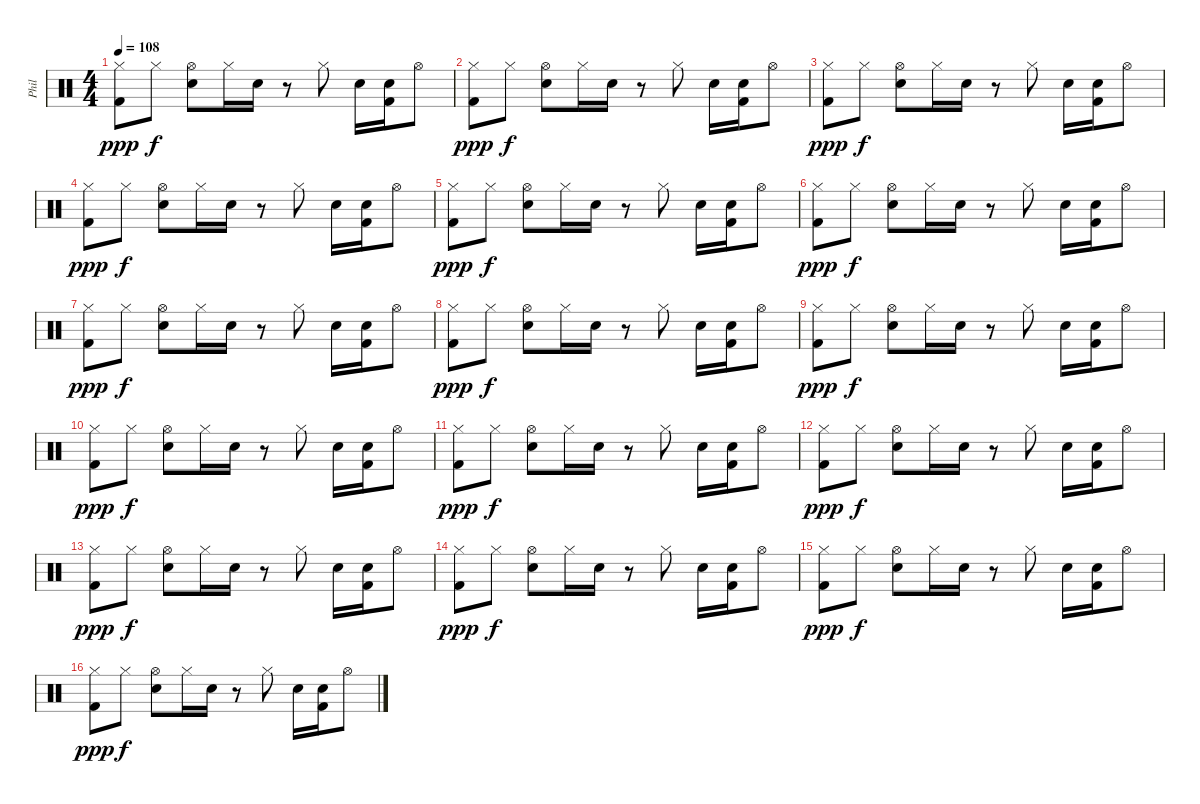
\track ("Phil" "Phil") {instrument percussion}
\staff {score}
\articulation defaults
\ts (4 4)
\tempo 108
\clef neutral
\ks c
("Hi-Hat (closed)" "Kick (hit) 2").8{dy ppp} "Hi-Hat (closed)".8{dy f} ("Hi-Hat (open)" "Electric Snare (hit)").8 "Hi-Hat (closed)".16 "Electric Snare (hit)".16 r.8 "Hi-Hat (closed)".8 "Electric Snare (hit)".16 ("Electric Snare (hit)" "Kick (hit) 2").16 "Hi-Hat (open)".8 |
("Hi-Hat (closed)" "Kick (hit) 2").8{dy ppp} "Hi-Hat (closed)".8{dy f} ("Hi-Hat (open)" "Electric Snare (hit)").8 "Hi-Hat (closed)".16 "Electric Snare (hit)".16 r.8 "Hi-Hat (closed)".8 "Electric Snare (hit)".16 ("Electric Snare (hit)" "Kick (hit) 2").16 "Hi-Hat (open)".8 |
("Hi-Hat (closed)" "Kick (hit) 2").8{dy ppp} "Hi-Hat (closed)".8{dy f} ("Hi-Hat (open)" "Electric Snare (hit)").8 "Hi-Hat (closed)".16 "Electric Snare (hit)".16 r.8 "Hi-Hat (closed)".8 "Electric Snare (hit)".16 ("Electric Snare (hit)" "Kick (hit) 2").16 "Hi-Hat (open)".8 |
("Hi-Hat (closed)" "Kick (hit) 2").8{dy ppp} "Hi-Hat (closed)".8{dy f} ("Hi-Hat (open)" "Electric Snare (hit)").8 "Hi-Hat (closed)".16 "Electric Snare (hit)".16 r.8 "Hi-Hat (closed)".8 "Electric Snare (hit)".16 ("Electric Snare (hit)" "Kick (hit) 2").16 "Hi-Hat (open)".8 |
("Hi-Hat (closed)" "Kick (hit) 2").8{dy ppp} "Hi-Hat (closed)".8{dy f} ("Hi-Hat (open)" "Electric Snare (hit)").8 "Hi-Hat (closed)".16 "Electric Snare (hit)".16 r.8 "Hi-Hat (closed)".8 "Electric Snare (hit)".16 ("Electric Snare (hit)" "Kick (hit) 2").16 "Hi-Hat (open)".8 |
("Hi-Hat (closed)" "Kick (hit) 2").8{dy ppp} "Hi-Hat (closed)".8{dy f} ("Hi-Hat (open)" "Electric Snare (hit)").8 "Hi-Hat (closed)".16 "Electric Snare (hit)".16 r.8 "Hi-Hat (closed)".8 "Electric Snare (hit)".16 ("Electric Snare (hit)" "Kick (hit) 2").16 "Hi-Hat (open)".8 |
("Hi-Hat (closed)" "Kick (hit) 2").8{dy ppp} "Hi-Hat (closed)".8{dy f} ("Hi-Hat (open)" "Electric Snare (hit)").8 "Hi-Hat (closed)".16 "Electric Snare (hit)".16 r.8 "Hi-Hat (closed)".8 "Electric Snare (hit)".16 ("Electric Snare (hit)" "Kick (hit) 2").16 "Hi-Hat (open)".8 |
("Hi-Hat (closed)" "Kick (hit) 2").8{dy ppp} "Hi-Hat (closed)".8{dy f} ("Hi-Hat (open)" "Electric Snare (hit)").8 "Hi-Hat (closed)".16 "Electric Snare (hit)".16 r.8 "Hi-Hat (closed)".8 "Electric Snare (hit)".16 ("Electric Snare (hit)" "Kick (hit) 2").16 "Hi-Hat (open)".8 |
("Hi-Hat (closed)" "Kick (hit) 2").8{dy ppp} "Hi-Hat (closed)".8{dy f} ("Hi-Hat (open)" "Electric Snare (hit)").8 "Hi-Hat (closed)".16 "Electric Snare (hit)".16 r.8 "Hi-Hat (closed)".8 "Electric Snare (hit)".16 ("Electric Snare (hit)" "Kick (hit) 2").16 "Hi-Hat (open)".8 |
("Hi-Hat (closed)" "Kick (hit) 2").8{dy ppp} "Hi-Hat (closed)".8{dy f} ("Hi-Hat (open)" "Electric Snare (hit)").8 "Hi-Hat (closed)".16 "Electric Snare (hit)".16 r.8 "Hi-Hat (closed)".8 "Electric Snare (hit)".16 ("Electric Snare (hit)" "Kick (hit) 2").16 "Hi-Hat (open)".8 |
("Hi-Hat (closed)" "Kick (hit) 2").8{dy ppp} "Hi-Hat (closed)".8{dy f} ("Hi-Hat (open)" "Electric Snare (hit)").8 "Hi-Hat (closed)".16 "Electric Snare (hit)".16 r.8 "Hi-Hat (closed)".8 "Electric Snare (hit)".16 ("Electric Snare (hit)" "Kick (hit) 2").16 "Hi-Hat (open)".8 |
("Hi-Hat (closed)" "Kick (hit) 2").8{dy ppp} "Hi-Hat (closed)".8{dy f} ("Hi-Hat (open)" "Electric Snare (hit)").8 "Hi-Hat (closed)".16 "Electric Snare (hit)".16 r.8 "Hi-Hat (closed)".8 "Electric Snare (hit)".16 ("Electric Snare (hit)" "Kick (hit) 2").16 "Hi-Hat (open)".8 |
("Hi-Hat (closed)" "Kick (hit) 2").8{dy ppp} "Hi-Hat (closed)".8{dy f} ("Hi-Hat (open)" "Electric Snare (hit)").8 "Hi-Hat (closed)".16 "Electric Snare (hit)".16 r.8 "Hi-Hat (closed)".8 "Electric Snare (hit)".16 ("Electric Snare (hit)" "Kick (hit) 2").16 "Hi-Hat (open)".8 |
("Hi-Hat (closed)" "Kick (hit) 2").8{dy ppp} "Hi-Hat (closed)".8{dy f} ("Hi-Hat (open)" "Electric Snare (hit)").8 "Hi-Hat (closed)".16 "Electric Snare (hit)".16 r.8 "Hi-Hat (closed)".8 "Electric Snare (hit)".16 ("Electric Snare (hit)" "Kick (hit) 2").16 "Hi-Hat (open)".8 |
("Hi-Hat (closed)" "Kick (hit) 2").8{dy ppp} "Hi-Hat (closed)".8{dy f} ("Hi-Hat (open)" "Electric Snare (hit)").8 "Hi-Hat (closed)".16 "Electric Snare (hit)".16 r.8 "Hi-Hat (closed)".8 "Electric Snare (hit)".16 ("Electric Snare (hit)" "Kick (hit) 2").16 "Hi-Hat (open)".8 |
("Hi-Hat (closed)" "Kick (hit) 2").8{dy ppp} "Hi-Hat (closed)".8{dy f} ("Hi-Hat (open)" "Electric Snare (hit)").8 "Hi-Hat (closed)".16 "Electric Snare (hit)".16 r.8 "Hi-Hat (closed)".8 "Electric Snare (hit)".16 ("Electric Snare (hit)" "Kick (hit) 2").16 "Hi-Hat (open)".8
